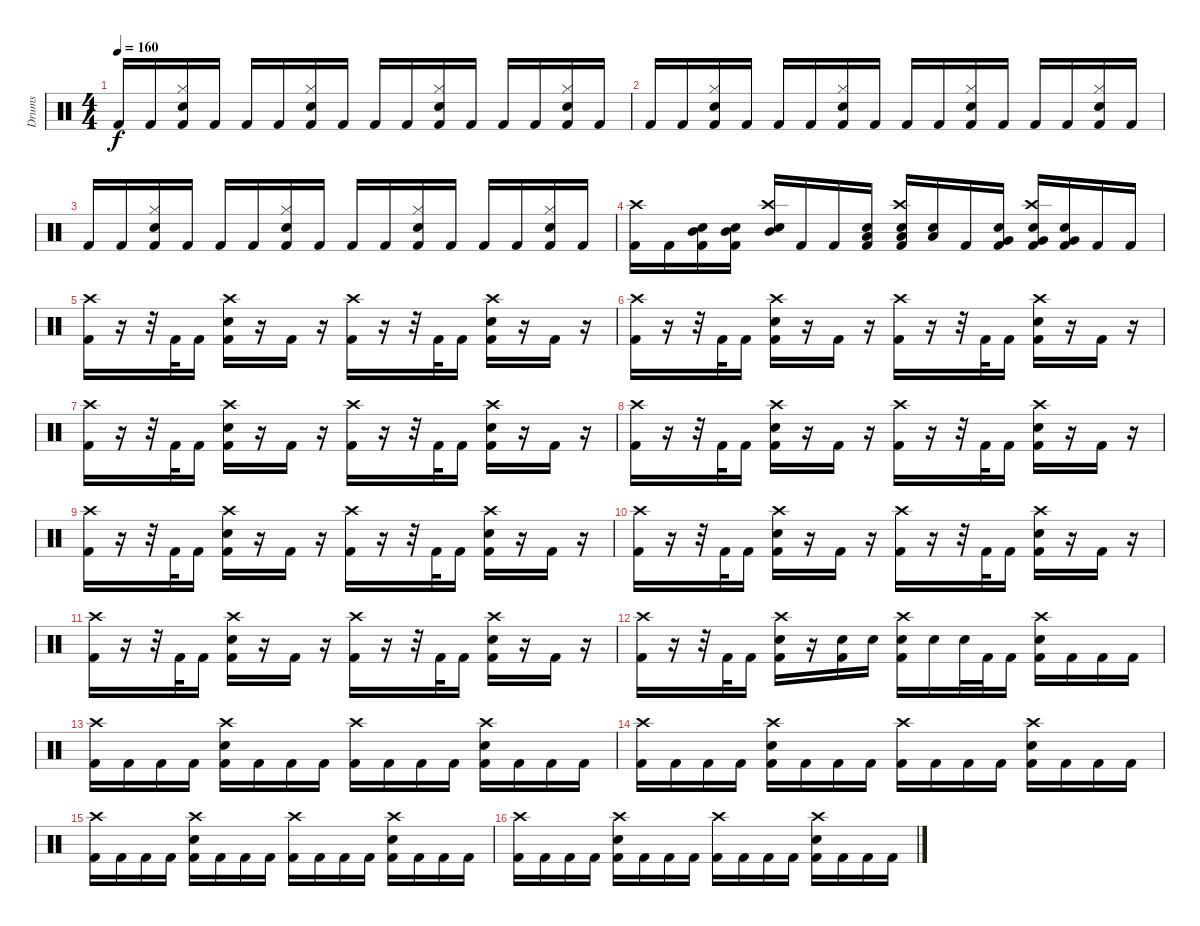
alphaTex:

\track ("Drums" "Drums") {instrument percussion}
\staff {score}
\articulation defaults
\ts (4 4)
\tempo 160
\clef neutral
\ks c "Kick (hit) 2".16{dy f} "Kick (hit) 2".16
("Hi-Hat (closed)" "Electric Snare (hit)" "Kick (hit) 2").16 "Kick (hit) 2".16 "Kick (hit) 2".16 "Kick (hit) 2".16 ("Hi-Hat (closed)" "Electric Snare (hit)" "Kick (hit) 2").16 "Kick (hit) 2".16 "Kick (hit) 2".16 "Kick (hit) 2".16 ("Hi-Hat (closed)" "Electric Snare (hit)" "Kick (hit) 2").16 "Kick (hit) 2".16 "Kick (hit) 2".16 "Kick (hit) 2".16 ("Hi-Hat (closed)" "Electric Snare (hit)" "Kick (hit) 2").16 "Kick (hit) 2".16 |
"Kick (hit) 2".16 "Kick (hit) 2".16 ("Hi-Hat (closed)" "Electric Snare (hit)" "Kick (hit) 2").16 "Kick (hit) 2".16 "Kick (hit) 2".16 "Kick (hit) 2".16 ("Hi-Hat (closed)" "Electric Snare (hit)" "Kick (hit) 2").16 "Kick (hit) 2".16 "Kick (hit) 2".16 "Kick (hit) 2".16 ("Hi-Hat (closed)" "Electric Snare (hit)" "Kick (hit) 2").16 "Kick (hit) 2".16 "Kick (hit) 2".16 "Kick (hit) 2".16 ("Hi-Hat (closed)" "Electric Snare (hit)" "Kick (hit) 2").16 "Kick (hit) 2".16 |
"Kick (hit) 2".16 "Kick (hit) 2".16 ("Hi-Hat (closed)" "Electric Snare (hit)" "Kick (hit) 2").16 "Kick (hit) 2".16 "Kick (hit) 2".16 "Kick (hit) 2".16 ("Hi-Hat (closed)" "Electric Snare (hit)" "Kick (hit) 2").16 "Kick (hit) 2".16 "Kick (hit) 2".16 "Kick (hit) 2".16 ("Hi-Hat (closed)" "Electric Snare (hit)" "Kick (hit) 2").16 "Kick (hit) 2".16 "Kick (hit) 2".16 "Kick (hit) 2".16 ("Hi-Hat (closed)" "Electric Snare (hit)" "Kick (hit) 2").16 "Kick (hit) 2".16 |
("Crash high (hit)" "Kick (hit) 2").16 "Kick (hit) 2".16 ("Electric Snare (hit)" "Kick (hit) 2" "Mid Tom (hit)").16 ("Electric Snare (hit)" "Kick (hit) 2" "Mid Tom (hit)").16 ("Crash high (hit)" "Electric Snare (hit)" "Mid Tom (hit)").16 "Kick (hit) 2".16 "Kick (hit) 2".16 ("Electric Snare (hit)" "Kick (hit) 2" "Low Tom (hit)").16 ("Crash high (hit)" "Electric Snare (hit)" "Kick (hit) 2" "Low Tom (hit)").16 ("Electric Snare (hit)" "Low Tom (hit)").16 "Kick (hit) 2".16 ("Electric Snare (hit)" "Kick (hit) 2" "Very Low Tom (hit)").16 ("Crash high (hit)" "Electric Snare (hit)" "Kick (hit) 2" "Very Low Tom (hit)").16 ("Electric Snare (hit)" "Kick (hit) 2" "Very Low Tom (hit)").16 "Kick (hit) 2".16 "Kick (hit) 2".16 |
("Crash high (hit)" "Kick (hit) 2").16 r.16 r.32 "Kick (hit) 2".32 "Kick (hit) 2".16 ("Crash high (hit)" "Electric Snare (hit)" "Kick (hit) 2").16 r.16 "Kick (hit) 2".16 r.16 ("Crash high (hit)" "Kick (hit) 2").16 r.16 r.32 "Kick (hit) 2".32 "Kick (hit) 2".16 ("Crash high (hit)" "Electric Snare (hit)" "Kick (hit) 2").16 r.16 "Kick (hit) 2".16 r.16 |
("Crash high (hit)" "Kick (hit) 2").16 r.16 r.32 "Kick (hit) 2".32 "Kick (hit) 2".16 ("Crash high (hit)" "Electric Snare (hit)" "Kick (hit) 2").16 r.16 "Kick (hit) 2".16 r.16 ("Crash high (hit)" "Kick (hit) 2").16 r.16 r.32 "Kick (hit) 2".32 "Kick (hit) 2".16 ("Crash high (hit)" "Electric Snare (hit)" "Kick (hit) 2").16 r.16 "Kick (hit) 2".16 r.16 |
("Crash high (hit)" "Kick (hit) 2").16 r.16 r.32 "Kick (hit) 2".32 "Kick (hit) 2".16 ("Crash high (hit)" "Electric Snare (hit)" "Kick (hit) 2").16 r.16 "Kick (hit) 2".16 r.16 ("Crash high (hit)" "Kick (hit) 2").16 r.16 r.32 "Kick (hit) 2".32 "Kick (hit) 2".16 ("Crash high (hit)" "Electric Snare (hit)" "Kick (hit) 2").16 r.16 "Kick (hit) 2".16 r.16 |
("Crash high (hit)" "Kick (hit) 2").16 r.16 r.32 "Kick (hit) 2".32 "Kick (hit) 2".16 ("Crash high (hit)" "Electric Snare (hit)" "Kick (hit) 2").16 r.16 "Kick (hit) 2".16 r.16 ("Crash high (hit)" "Kick (hit) 2").16 r.16 r.32 "Kick (hit) 2".32 "Kick (hit) 2".16 ("Crash high (hit)" "Electric Snare (hit)" "Kick (hit) 2").16 r.16 "Kick (hit) 2".16 r.16 |
("Crash high (hit)" "Kick (hit) 2").16 r.16 r.32 "Kick (hit) 2".32 "Kick (hit) 2".16 ("Crash high (hit)" "Electric Snare (hit)" "Kick (hit) 2").16 r.16 "Kick (hit) 2".16 r.16 ("Crash high (hit)" "Kick (hit) 2").16 r.16 r.32 "Kick (hit) 2".32 "Kick (hit) 2".16 ("Crash high (hit)" "Electric Snare (hit)" "Kick (hit) 2").16 r.16 "Kick (hit) 2".16 r.16 |
("Crash high (hit)" "Kick (hit) 2").16 r.16 r.32 "Kick (hit) 2".32 "Kick (hit) 2".16 ("Crash high (hit)" "Electric Snare (hit)" "Kick (hit) 2").16 r.16 "Kick (hit) 2".16 r.16 ("Crash high (hit)" "Kick (hit) 2").16 r.16 r.32 "Kick (hit) 2".32 "Kick (hit) 2".16 ("Crash high (hit)" "Electric Snare (hit)" "Kick (hit) 2").16 r.16 "Kick (hit) 2".16 r.16 |
("Crash high (hit)" "Kick (hit) 2").16 r.16 r.32 "Kick (hit) 2".32 "Kick (hit) 2".16 ("Crash high (hit)" "Electric Snare (hit)" "Kick (hit) 2").16 r.16 "Kick (hit) 2".16 r.16 ("Crash high (hit)" "Kick (hit) 2").16 r.16 r.32 "Kick (hit) 2".32 "Kick (hit) 2".16 ("Crash high (hit)" "Electric Snare (hit)" "Kick (hit) 2").16 r.16 "Kick (hit) 2".16 r.16 |
("Crash high (hit)" "Kick (hit) 2").16 r.16 r.32 "Kick (hit) 2".32 "Kick (hit) 2".16 ("Crash high (hit)" "Electric Snare (hit)" "Kick (hit) 2").16 r.16 ("Electric Snare (hit)" "Kick (hit) 2").16 "Electric Snare (hit)".16 ("Crash high (hit)" "Electric Snare (hit)" "Kick (hit) 2").16 "Electric Snare (hit)".16 "Electric Snare (hit)".32 "Kick (hit) 2".32 "Kick (hit) 2".16 ("Crash high (hit)" "Electric Snare (hit)" "Kick (hit) 2").16 "Kick (hit) 2".16 "Kick (hit) 2".16 "Kick (hit) 2".16 |
("Crash high (hit)" "Kick (hit) 2").16 "Kick (hit) 2".16 "Kick (hit) 2".16 "Kick (hit) 2".16 ("Crash high (hit)" "Electric Snare (hit)" "Kick (hit) 2").16 "Kick (hit) 2".16 "Kick (hit) 2".16 "Kick (hit) 2".16 ("Crash high (hit)" "Kick (hit) 2").16 "Kick (hit) 2".16 "Kick (hit) 2".16 "Kick (hit) 2".16 ("Crash high (hit)" "Electric Snare (hit)" "Kick (hit) 2").16 "Kick (hit) 2".16 "Kick (hit) 2".16 "Kick (hit) 2".16 |
("Crash high (hit)" "Kick (hit) 2").16 "Kick (hit) 2".16 "Kick (hit) 2".16 "Kick (hit) 2".16 ("Crash high (hit)" "Electric Snare (hit)" "Kick (hit) 2").16 "Kick (hit) 2".16 "Kick (hit) 2".16 "Kick (hit) 2".16 ("Crash high (hit)" "Kick (hit) 2").16 "Kick (hit) 2".16 "Kick (hit) 2".16 "Kick (hit) 2".16 ("Crash high (hit)" "Electric Snare (hit)" "Kick (hit) 2").16 "Kick (hit) 2".16 "Kick (hit) 2".16 "Kick (hit) 2".16 |
("Crash high (hit)" "Kick (hit) 2").16 "Kick (hit) 2".16 "Kick (hit) 2".16 "Kick (hit) 2".16 ("Crash high (hit)" "Electric Snare (hit)" "Kick (hit) 2").16 "Kick (hit) 2".16 "Kick (hit) 2".16 "Kick (hit) 2".16 ("Crash high (hit)" "Kick (hit) 2").16 "Kick (hit) 2".16 "Kick (hit) 2".16 "Kick (hit) 2".16 ("Crash high (hit)" "Electric Snare (hit)" "Kick (hit) 2").16 "Kick (hit) 2".16 "Kick (hit) 2".16 "Kick (hit) 2".16 |
("Crash high (hit)" "Kick (hit) 2").16 "Kick (hit) 2".16 "Kick (hit) 2".16 "Kick (hit) 2".16 ("Crash high (hit)" "Electric Snare (hit)" "Kick (hit) 2").16 "Kick (hit) 2".16 "Kick (hit) 2".16 "Kick (hit) 2".16 ("Crash high (hit)" "Kick (hit) 2").16 "Kick (hit) 2".16 "Kick (hit) 2".16 "Kick (hit) 2".16 ("Crash high (hit)" "Electric Snare (hit)" "Kick (hit) 2").16 "Kick (hit) 2".16 "Kick (hit) 2".16 "Kick (hit) 2".16
